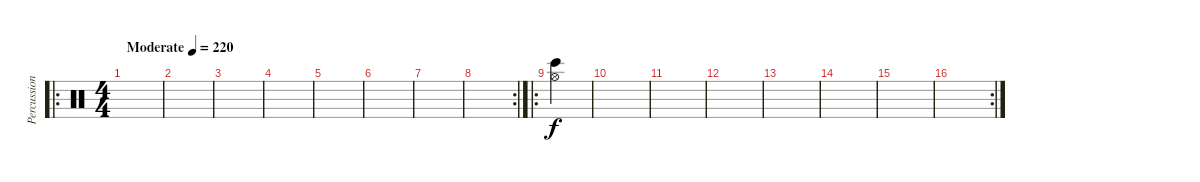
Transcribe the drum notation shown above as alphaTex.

\track ("Percussion" "Percussion") {instrument percussion}
\staff {score}
\articulation defaults
\ro
\ts (4 4)
\tempo (220 "Moderate")
\clef neutral
\ks c
|
|
|
|
|
|
|
\rc 2
|
\ro
("Hi-Hat (open)" "Bongo High (hit)").4 |
|
|
|
|
|
|
\rc 2
